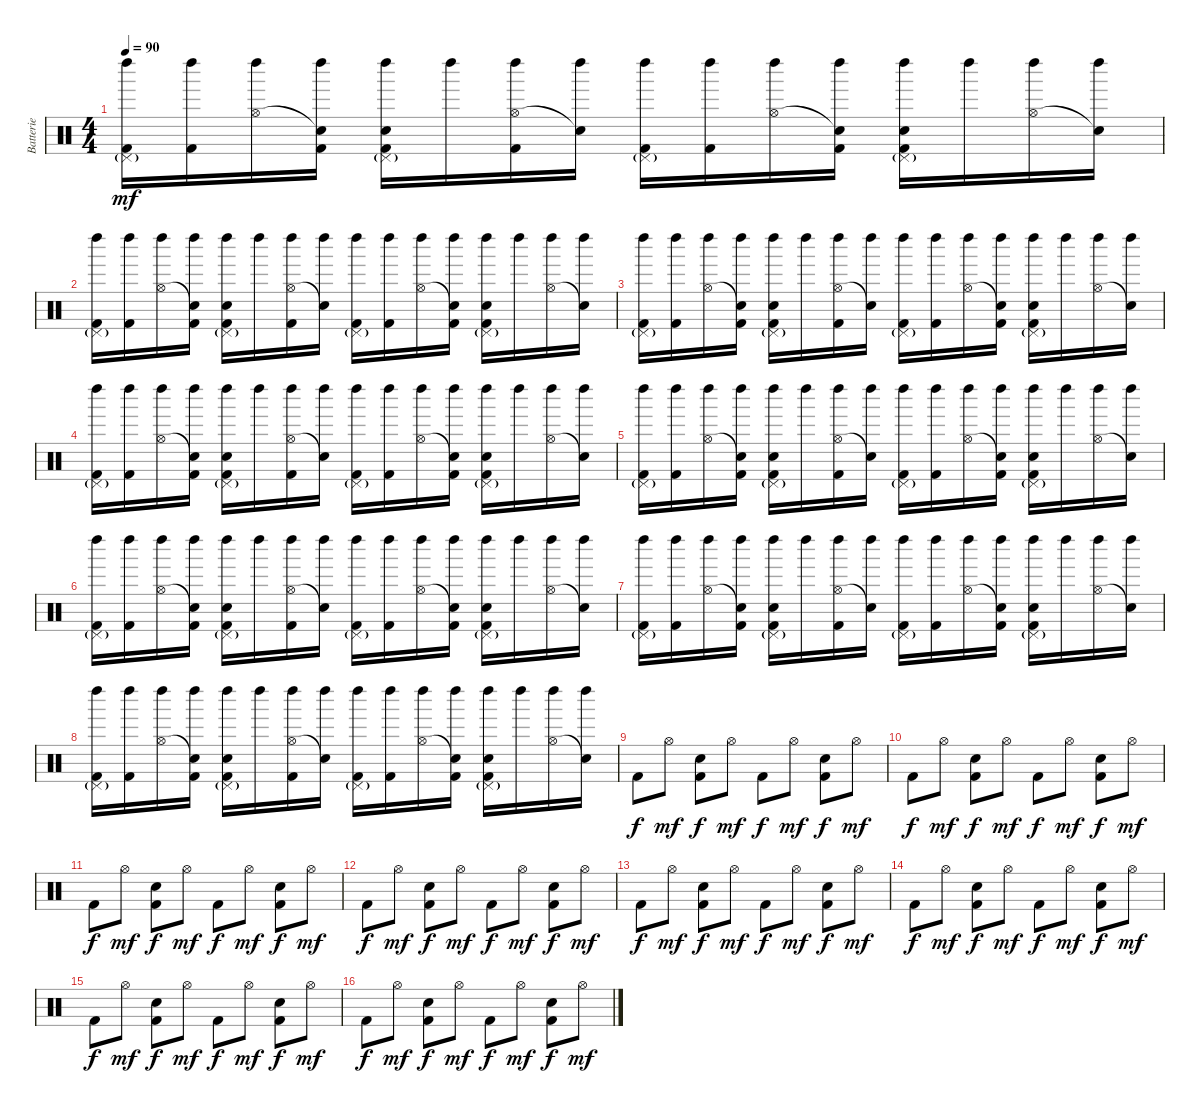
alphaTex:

\track ("Batterie" "Batterie") {instrument percussion}
\staff {score}
\articulation defaults
\ts (4 4)
\tempo 90
\clef neutral
\ks c
("Pedal Hi-Hat (hit)"{g} "Left Maraca (hit)" "Kick (hit) 2").16{dy mf} ("Left Maraca (hit)" "Kick (hit) 2").16 ("Hi-Hat (open)" "Left Maraca (hit)").16 ("Snare (hit)"{t} "Left Maraca (hit)" "Kick (hit) 2").16 ("Pedal Hi-Hat (hit)"{g} "Left Maraca (hit)" "Snare (hit) 2" "Kick (hit) 2").16 "Left Maraca (hit)".16 ("Hi-Hat (open)" "Left Maraca (hit)" "Kick (hit) 2").16 ("Snare (hit)"{t} "Left Maraca (hit)").16 ("Pedal Hi-Hat (hit)"{g} "Left Maraca (hit)" "Kick (hit) 2").16 ("Left Maraca (hit)" "Kick (hit) 2").16 ("Hi-Hat (open)" "Left Maraca (hit)").16 ("Snare (hit)"{t} "Left Maraca (hit)" "Kick (hit) 2").16 ("Pedal Hi-Hat (hit)"{g} "Left Maraca (hit)" "Snare (hit) 2" "Kick (hit) 2").16 "Left Maraca (hit)".16 ("Hi-Hat (open)" "Left Maraca (hit)").16 ("Snare (hit)"{t} "Left Maraca (hit)").16 |
("Pedal Hi-Hat (hit)"{g} "Left Maraca (hit)" "Kick (hit) 2").16 ("Left Maraca (hit)" "Kick (hit) 2").16 ("Hi-Hat (open)" "Left Maraca (hit)").16 ("Snare (hit)"{t} "Left Maraca (hit)" "Kick (hit) 2").16 ("Pedal Hi-Hat (hit)"{g} "Left Maraca (hit)" "Snare (hit) 2" "Kick (hit) 2").16 "Left Maraca (hit)".16 ("Hi-Hat (open)" "Left Maraca (hit)" "Kick (hit) 2").16 ("Snare (hit)"{t} "Left Maraca (hit)").16 ("Pedal Hi-Hat (hit)"{g} "Left Maraca (hit)" "Kick (hit) 2").16 ("Left Maraca (hit)" "Kick (hit) 2").16 ("Hi-Hat (open)" "Left Maraca (hit)").16 ("Snare (hit)"{t} "Left Maraca (hit)" "Kick (hit) 2").16 ("Pedal Hi-Hat (hit)"{g} "Left Maraca (hit)" "Snare (hit) 2" "Kick (hit) 2").16 "Left Maraca (hit)".16 ("Hi-Hat (open)" "Left Maraca (hit)").16 ("Snare (hit)"{t} "Left Maraca (hit)").16 |
("Pedal Hi-Hat (hit)"{g} "Left Maraca (hit)" "Kick (hit) 2").16 ("Left Maraca (hit)" "Kick (hit) 2").16 ("Hi-Hat (open)" "Left Maraca (hit)").16 ("Snare (hit)"{t} "Left Maraca (hit)" "Kick (hit) 2").16 ("Pedal Hi-Hat (hit)"{g} "Left Maraca (hit)" "Snare (hit) 2" "Kick (hit) 2").16 "Left Maraca (hit)".16 ("Hi-Hat (open)" "Left Maraca (hit)" "Kick (hit) 2").16 ("Snare (hit)"{t} "Left Maraca (hit)").16 ("Pedal Hi-Hat (hit)"{g} "Left Maraca (hit)" "Kick (hit) 2").16 ("Left Maraca (hit)" "Kick (hit) 2").16 ("Hi-Hat (open)" "Left Maraca (hit)").16 ("Snare (hit)"{t} "Left Maraca (hit)" "Kick (hit) 2").16 ("Pedal Hi-Hat (hit)"{g} "Left Maraca (hit)" "Snare (hit) 2" "Kick (hit) 2").16 "Left Maraca (hit)".16 ("Hi-Hat (open)" "Left Maraca (hit)").16 ("Snare (hit)"{t} "Left Maraca (hit)").16 |
("Pedal Hi-Hat (hit)"{g} "Left Maraca (hit)" "Kick (hit) 2").16 ("Left Maraca (hit)" "Kick (hit) 2").16 ("Hi-Hat (open)" "Left Maraca (hit)").16 ("Snare (hit)"{t} "Left Maraca (hit)" "Kick (hit) 2").16 ("Pedal Hi-Hat (hit)"{g} "Left Maraca (hit)" "Snare (hit) 2" "Kick (hit) 2").16 "Left Maraca (hit)".16 ("Hi-Hat (open)" "Left Maraca (hit)" "Kick (hit) 2").16 ("Snare (hit)"{t} "Left Maraca (hit)").16 ("Pedal Hi-Hat (hit)"{g} "Left Maraca (hit)" "Kick (hit) 2").16 ("Left Maraca (hit)" "Kick (hit) 2").16 ("Hi-Hat (open)" "Left Maraca (hit)").16 ("Snare (hit)"{t} "Left Maraca (hit)" "Kick (hit) 2").16 ("Pedal Hi-Hat (hit)"{g} "Left Maraca (hit)" "Snare (hit) 2" "Kick (hit) 2").16 "Left Maraca (hit)".16 ("Hi-Hat (open)" "Left Maraca (hit)").16 ("Snare (hit)"{t} "Left Maraca (hit)").16 |
("Pedal Hi-Hat (hit)"{g} "Left Maraca (hit)" "Kick (hit) 2").16 ("Left Maraca (hit)" "Kick (hit) 2").16 ("Hi-Hat (open)" "Left Maraca (hit)").16 ("Snare (hit)"{t} "Left Maraca (hit)" "Kick (hit) 2").16 ("Pedal Hi-Hat (hit)"{g} "Left Maraca (hit)" "Snare (hit) 2" "Kick (hit) 2").16 "Left Maraca (hit)".16 ("Hi-Hat (open)" "Left Maraca (hit)" "Kick (hit) 2").16 ("Snare (hit)"{t} "Left Maraca (hit)").16 ("Pedal Hi-Hat (hit)"{g} "Left Maraca (hit)" "Kick (hit) 2").16 ("Left Maraca (hit)" "Kick (hit) 2").16 ("Hi-Hat (open)" "Left Maraca (hit)").16 ("Snare (hit)"{t} "Left Maraca (hit)" "Kick (hit) 2").16 ("Pedal Hi-Hat (hit)"{g} "Left Maraca (hit)" "Snare (hit) 2" "Kick (hit) 2").16 "Left Maraca (hit)".16 ("Hi-Hat (open)" "Left Maraca (hit)").16 ("Snare (hit)"{t} "Left Maraca (hit)").16 |
("Pedal Hi-Hat (hit)"{g} "Left Maraca (hit)" "Kick (hit) 2").16 ("Left Maraca (hit)" "Kick (hit) 2").16 ("Hi-Hat (open)" "Left Maraca (hit)").16 ("Snare (hit)"{t} "Left Maraca (hit)" "Kick (hit) 2").16 ("Pedal Hi-Hat (hit)"{g} "Left Maraca (hit)" "Snare (hit) 2" "Kick (hit) 2").16 "Left Maraca (hit)".16 ("Hi-Hat (open)" "Left Maraca (hit)" "Kick (hit) 2").16 ("Snare (hit)"{t} "Left Maraca (hit)").16 ("Pedal Hi-Hat (hit)"{g} "Left Maraca (hit)" "Kick (hit) 2").16 ("Left Maraca (hit)" "Kick (hit) 2").16 ("Hi-Hat (open)" "Left Maraca (hit)").16 ("Snare (hit)"{t} "Left Maraca (hit)" "Kick (hit) 2").16 ("Pedal Hi-Hat (hit)"{g} "Left Maraca (hit)" "Snare (hit) 2" "Kick (hit) 2").16 "Left Maraca (hit)".16 ("Hi-Hat (open)" "Left Maraca (hit)").16 ("Snare (hit)"{t} "Left Maraca (hit)").16 |
("Pedal Hi-Hat (hit)"{g} "Left Maraca (hit)" "Kick (hit) 2").16 ("Left Maraca (hit)" "Kick (hit) 2").16 ("Hi-Hat (open)" "Left Maraca (hit)").16 ("Snare (hit)"{t} "Left Maraca (hit)" "Kick (hit) 2").16 ("Pedal Hi-Hat (hit)"{g} "Left Maraca (hit)" "Snare (hit) 2" "Kick (hit) 2").16 "Left Maraca (hit)".16 ("Hi-Hat (open)" "Left Maraca (hit)" "Kick (hit) 2").16 ("Snare (hit)"{t} "Left Maraca (hit)").16 ("Pedal Hi-Hat (hit)"{g} "Left Maraca (hit)" "Kick (hit) 2").16 ("Left Maraca (hit)" "Kick (hit) 2").16 ("Hi-Hat (open)" "Left Maraca (hit)").16 ("Snare (hit)"{t} "Left Maraca (hit)" "Kick (hit) 2").16 ("Pedal Hi-Hat (hit)"{g} "Left Maraca (hit)" "Snare (hit) 2" "Kick (hit) 2").16 "Left Maraca (hit)".16 ("Hi-Hat (open)" "Left Maraca (hit)").16 ("Snare (hit)"{t} "Left Maraca (hit)").16 |
("Pedal Hi-Hat (hit)"{g} "Left Maraca (hit)" "Kick (hit) 2").16 ("Left Maraca (hit)" "Kick (hit) 2").16 ("Hi-Hat (open)" "Left Maraca (hit)").16 ("Snare (hit)"{t} "Left Maraca (hit)" "Kick (hit) 2").16 ("Pedal Hi-Hat (hit)"{g} "Left Maraca (hit)" "Snare (hit) 2" "Kick (hit) 2").16 "Left Maraca (hit)".16 ("Hi-Hat (open)" "Left Maraca (hit)" "Kick (hit) 2").16 ("Snare (hit)"{t} "Left Maraca (hit)").16 ("Pedal Hi-Hat (hit)"{g} "Left Maraca (hit)" "Kick (hit) 2").16 ("Left Maraca (hit)" "Kick (hit) 2").16 ("Hi-Hat (open)" "Left Maraca (hit)").16 ("Snare (hit)"{t} "Left Maraca (hit)" "Kick (hit) 2").16 ("Pedal Hi-Hat (hit)"{g} "Left Maraca (hit)" "Snare (hit) 2" "Kick (hit) 2").16 "Left Maraca (hit)".16 ("Hi-Hat (open)" "Left Maraca (hit)").16 ("Snare (hit)"{t} "Left Maraca (hit)").16 |
"Kick (hit) 2".8{dy f} "Hi-Hat (open)".8{dy mf} ("Snare (hit) 2" "Kick (hit) 2").8{dy f} "Hi-Hat (open)".8{dy mf} "Kick (hit) 2".8{dy f} "Hi-Hat (open)".8{dy mf} ("Snare (hit) 2" "Kick (hit) 2").8{dy f} "Hi-Hat (open)".8{dy mf} |
"Kick (hit) 2".8{dy f} "Hi-Hat (open)".8{dy mf} ("Snare (hit) 2" "Kick (hit) 2").8{dy f} "Hi-Hat (open)".8{dy mf} "Kick (hit) 2".8{dy f} "Hi-Hat (open)".8{dy mf} ("Snare (hit) 2" "Kick (hit) 2").8{dy f} "Hi-Hat (open)".8{dy mf} |
"Kick (hit) 2".8{dy f} "Hi-Hat (open)".8{dy mf} ("Snare (hit) 2" "Kick (hit) 2").8{dy f} "Hi-Hat (open)".8{dy mf} "Kick (hit) 2".8{dy f} "Hi-Hat (open)".8{dy mf} ("Snare (hit) 2" "Kick (hit) 2").8{dy f} "Hi-Hat (open)".8{dy mf} |
"Kick (hit) 2".8{dy f} "Hi-Hat (open)".8{dy mf} ("Snare (hit) 2" "Kick (hit) 2").8{dy f} "Hi-Hat (open)".8{dy mf} "Kick (hit) 2".8{dy f} "Hi-Hat (open)".8{dy mf} ("Snare (hit) 2" "Kick (hit) 2").8{dy f} "Hi-Hat (open)".8{dy mf} |
"Kick (hit) 2".8{dy f} "Hi-Hat (open)".8{dy mf} ("Snare (hit) 2" "Kick (hit) 2").8{dy f} "Hi-Hat (open)".8{dy mf} "Kick (hit) 2".8{dy f} "Hi-Hat (open)".8{dy mf} ("Snare (hit) 2" "Kick (hit) 2").8{dy f} "Hi-Hat (open)".8{dy mf} |
"Kick (hit) 2".8{dy f} "Hi-Hat (open)".8{dy mf} ("Snare (hit) 2" "Kick (hit) 2").8{dy f} "Hi-Hat (open)".8{dy mf} "Kick (hit) 2".8{dy f} "Hi-Hat (open)".8{dy mf} ("Snare (hit) 2" "Kick (hit) 2").8{dy f} "Hi-Hat (open)".8{dy mf} |
"Kick (hit) 2".8{dy f} "Hi-Hat (open)".8{dy mf} ("Snare (hit) 2" "Kick (hit) 2").8{dy f} "Hi-Hat (open)".8{dy mf} "Kick (hit) 2".8{dy f} "Hi-Hat (open)".8{dy mf} ("Snare (hit) 2" "Kick (hit) 2").8{dy f} "Hi-Hat (open)".8{dy mf} |
"Kick (hit) 2".8{dy f} "Hi-Hat (open)".8{dy mf} ("Snare (hit) 2" "Kick (hit) 2").8{dy f} "Hi-Hat (open)".8{dy mf} "Kick (hit) 2".8{dy f} "Hi-Hat (open)".8{dy mf} ("Snare (hit) 2" "Kick (hit) 2").8{dy f} "Hi-Hat (open)".8{dy mf}
